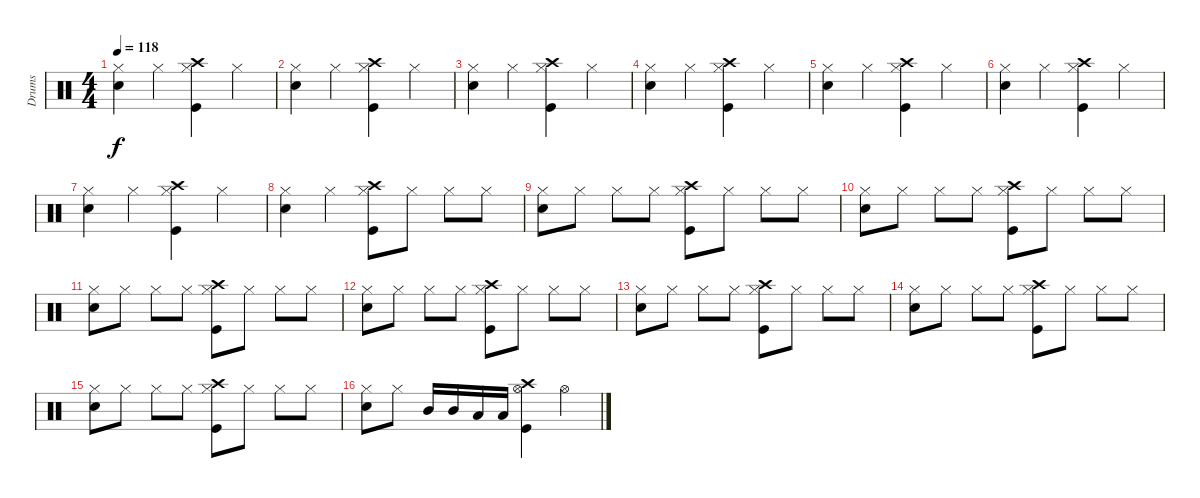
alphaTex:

\track ("Drums" "Drums") {instrument percussion}
\staff {score}
\articulation defaults
\ts (4 4)
\tempo 118
\clef neutral
\ks c
("Snare (hit) 2" "Hi-Hat (closed)").4{dy f} "Hi-Hat (closed)".4 ("Kick (hit)" "Hi-Hat (closed)" "Crash high (hit)").4 "Hi-Hat (closed)".4 |
("Snare (hit) 2" "Hi-Hat (closed)").4 "Hi-Hat (closed)".4 ("Kick (hit)" "Hi-Hat (closed)" "Crash high (hit)").4 "Hi-Hat (closed)".4 |
("Snare (hit) 2" "Hi-Hat (closed)").4 "Hi-Hat (closed)".4 ("Kick (hit)" "Hi-Hat (closed)" "Crash high (hit)").4 "Hi-Hat (closed)".4 |
("Snare (hit) 2" "Hi-Hat (closed)").4 "Hi-Hat (closed)".4 ("Kick (hit)" "Hi-Hat (closed)" "Crash high (hit)").4 "Hi-Hat (closed)".4 |
("Snare (hit) 2" "Hi-Hat (closed)").4 "Hi-Hat (closed)".4 ("Kick (hit)" "Hi-Hat (closed)" "Crash high (hit)").4 "Hi-Hat (closed)".4 |
("Snare (hit) 2" "Hi-Hat (closed)").4 "Hi-Hat (closed)".4 ("Kick (hit)" "Hi-Hat (closed)" "Crash high (hit)").4 "Hi-Hat (closed)".4 |
("Snare (hit) 2" "Hi-Hat (closed)").4 "Hi-Hat (closed)".4 ("Kick (hit)" "Hi-Hat (closed)" "Crash high (hit)").4 "Hi-Hat (closed)".4 |
("Snare (hit) 2" "Hi-Hat (closed)").4 "Hi-Hat (closed)".4 ("Kick (hit)" "Hi-Hat (closed)" "Crash high (hit)").8 "Hi-Hat (closed)".8 "Hi-Hat (closed)".8 "Hi-Hat (closed)".8 |
("Snare (hit) 2" "Hi-Hat (closed)").8 "Hi-Hat (closed)".8 "Hi-Hat (closed)".8 "Hi-Hat (closed)".8 ("Kick (hit)" "Hi-Hat (closed)" "Crash high (hit)").8 "Hi-Hat (closed)".8 "Hi-Hat (closed)".8 "Hi-Hat (closed)".8 |
("Snare (hit) 2" "Hi-Hat (closed)").8 "Hi-Hat (closed)".8 "Hi-Hat (closed)".8 "Hi-Hat (closed)".8 ("Kick (hit)" "Hi-Hat (closed)" "Crash high (hit)").8 "Hi-Hat (closed)".8 "Hi-Hat (closed)".8 "Hi-Hat (closed)".8 |
("Snare (hit) 2" "Hi-Hat (closed)").8 "Hi-Hat (closed)".8 "Hi-Hat (closed)".8 "Hi-Hat (closed)".8 ("Kick (hit)" "Hi-Hat (closed)" "Crash high (hit)").8 "Hi-Hat (closed)".8 "Hi-Hat (closed)".8 "Hi-Hat (closed)".8 |
("Snare (hit) 2" "Hi-Hat (closed)").8 "Hi-Hat (closed)".8 "Hi-Hat (closed)".8 "Hi-Hat (closed)".8 ("Kick (hit)" "Hi-Hat (closed)" "Crash high (hit)").8 "Hi-Hat (closed)".8 "Hi-Hat (closed)".8 "Hi-Hat (closed)".8 |
("Snare (hit) 2" "Hi-Hat (closed)").8 "Hi-Hat (closed)".8 "Hi-Hat (closed)".8 "Hi-Hat (closed)".8 ("Kick (hit)" "Hi-Hat (closed)" "Crash high (hit)").8 "Hi-Hat (closed)".8 "Hi-Hat (closed)".8 "Hi-Hat (closed)".8 |
("Snare (hit) 2" "Hi-Hat (closed)").8 "Hi-Hat (closed)".8 "Hi-Hat (closed)".8 "Hi-Hat (closed)".8 ("Kick (hit)" "Hi-Hat (closed)" "Crash high (hit)").8 "Hi-Hat (closed)".8 "Hi-Hat (closed)".8 "Hi-Hat (closed)".8 |
("Snare (hit) 2" "Hi-Hat (closed)").8 "Hi-Hat (closed)".8 "Hi-Hat (closed)".8 "Hi-Hat (closed)".8 ("Kick (hit)" "Hi-Hat (closed)" "Crash high (hit)").8 "Hi-Hat (closed)".8 "Hi-Hat (closed)".8 "Hi-Hat (closed)".8 |
("Snare (hit) 2" "Hi-Hat (closed)").8 "Hi-Hat (closed)".8 "Mid Tom (hit)".16 "Mid Tom (hit)".16 "Low Tom (hit)".16 "Low Tom (hit)".16 ("Kick (hit)" "Hi-Hat (open)" "Crash high (hit)").4 "Hi-Hat (open)".4
